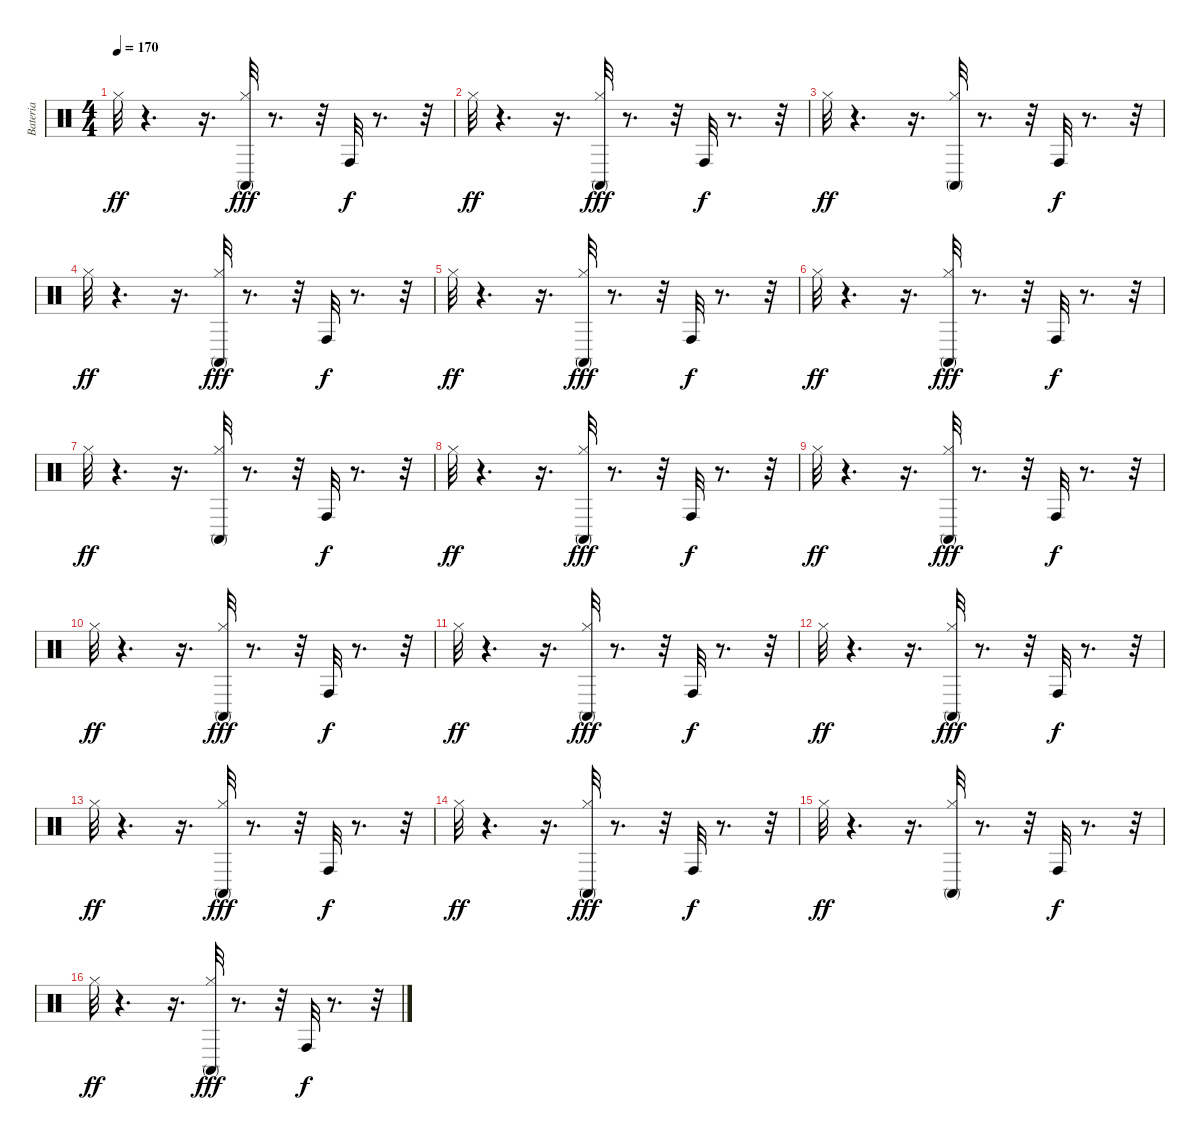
\track ("Bateria" "Bateria") {instrument percussion}
\staff {score}
\articulation defaults
\ts (4 4)
\tempo 170
\clef neutral
\ks c "Hi-Hat (closed)".32{dy ff}
r.4{d} r.16{d} ("Hi-Hat (closed)" "Conga high (mute)").32{dy fff} r.8{d} r.32 "Conga high (hit)".32{dy f} r.8{d} r.32 |
"Hi-Hat (closed)".32{dy ff} r.4{d} r.16{d} ("Hi-Hat (closed)" "Conga high (mute)").32{dy fff} r.8{d} r.32 "Conga high (hit)".32{dy f} r.8{d} r.32 |
"Hi-Hat (closed)".32{dy ff} r.4{d} r.16{d} ("Conga high (mute)" "Hi-Hat (closed)").32 r.8{d} r.32 "Conga high (hit)".32{dy f} r.8{d} r.32 |
"Hi-Hat (closed)".32{dy ff} r.4{d} r.16{d} ("Hi-Hat (closed)" "Conga high (mute)").32{dy fff} r.8{d} r.32 "Conga high (hit)".32{dy f} r.8{d} r.32 |
"Hi-Hat (closed)".32{dy ff} r.4{d} r.16{d} ("Hi-Hat (closed)" "Conga high (mute)").32{dy fff} r.8{d} r.32 "Conga high (hit)".32{dy f} r.8{d} r.32 |
"Hi-Hat (closed)".32{dy ff} r.4{d} r.16{d} ("Hi-Hat (closed)" "Conga high (mute)").32{dy fff} r.8{d} r.32 "Conga high (hit)".32{dy f} r.8{d} r.32 |
"Hi-Hat (closed)".32{dy ff} r.4{d} r.16{d} ("Conga high (mute)" "Hi-Hat (closed)").32 r.8{d} r.32 "Conga high (hit)".32{dy f} r.8{d} r.32 |
"Hi-Hat (closed)".32{dy ff} r.4{d} r.16{d} ("Hi-Hat (closed)" "Conga high (mute)").32{dy fff} r.8{d} r.32 "Conga high (hit)".32{dy f} r.8{d} r.32 |
"Hi-Hat (closed)".32{dy ff} r.4{d} r.16{d} ("Hi-Hat (closed)" "Conga high (mute)").32{dy fff} r.8{d} r.32 "Conga high (hit)".32{dy f} r.8{d} r.32 |
"Hi-Hat (closed)".32{dy ff} r.4{d} r.16{d} ("Hi-Hat (closed)" "Conga high (mute)").32{dy fff} r.8{d} r.32 "Conga high (hit)".32{dy f} r.8{d} r.32 |
"Hi-Hat (closed)".32{dy ff} r.4{d} r.16{d} ("Hi-Hat (closed)" "Conga high (mute)").32{dy fff} r.8{d} r.32 "Conga high (hit)".32{dy f} r.8{d} r.32 |
"Hi-Hat (closed)".32{dy ff} r.4{d} r.16{d} ("Hi-Hat (closed)" "Conga high (mute)").32{dy fff} r.8{d} r.32 "Conga high (hit)".32{dy f} r.8{d} r.32 |
"Hi-Hat (closed)".32{dy ff} r.4{d} r.16{d} ("Hi-Hat (closed)" "Conga high (mute)").32{dy fff} r.8{d} r.32 "Conga high (hit)".32{dy f} r.8{d} r.32 |
"Hi-Hat (closed)".32{dy ff} r.4{d} r.16{d} ("Hi-Hat (closed)" "Conga high (mute)").32{dy fff} r.8{d} r.32 "Conga high (hit)".32{dy f} r.8{d} r.32 |
"Hi-Hat (closed)".32{dy ff} r.4{d} r.16{d} ("Conga high (mute)" "Hi-Hat (closed)").32 r.8{d} r.32 "Conga high (hit)".32{dy f} r.8{d} r.32 |
"Hi-Hat (closed)".32{dy ff} r.4{d} r.16{d} ("Hi-Hat (closed)" "Conga high (mute)").32{dy fff} r.8{d} r.32 "Conga high (hit)".32{dy f} r.8{d} r.32
